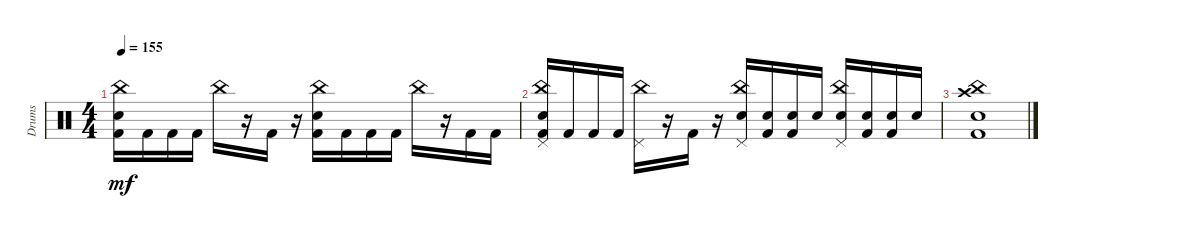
\track ("Drums" "Drums") {instrument percussion}
\staff {score}
\articulation defaults
\ts (4 4)
\tempo 155
\clef neutral
\ks c
("Electric Snare (hit)" "Kick (hit) 2" "China (hit)").16{dy mf} "Kick (hit) 2".16 "Kick (hit) 2".16 "Kick (hit) 2".16 "China (hit)".16 r.16 "Kick (hit) 2".16 r.16 ("Electric Snare (hit)" "Kick (hit) 2" "China (hit)").16 "Kick (hit) 2".16 "Kick (hit) 2".16 "Kick (hit) 2".16 "China (hit)".16 r.16 "Kick (hit) 2".16 "Kick (hit) 2".16 |
("China (hit)" "Electric Snare (hit)" "Kick (hit) 2" "Pedal Hi-Hat (hit)").16 "Kick (hit) 2".16 "Kick (hit) 2".16 "Kick (hit) 2".16 ("China (hit)" "Pedal Hi-Hat (hit)").16 r.16 "Kick (hit) 2".16 r.16 ("China (hit)" "Pedal Hi-Hat (hit)" "Electric Snare (hit)").16 ("Kick (hit) 2" "Electric Snare (hit)").16 ("Kick (hit) 2" "Electric Snare (hit)").16 "Electric Snare (hit)".16 ("China (hit)" "Pedal Hi-Hat (hit)" "Electric Snare (hit)").16 ("Kick (hit) 2" "Electric Snare (hit)").16 ("Kick (hit) 2" "Electric Snare (hit)").16 "Electric Snare (hit)".16 |
("China (hit)" "Electric Snare (hit)" "Kick (hit) 2" "Crash high (hit)").1
